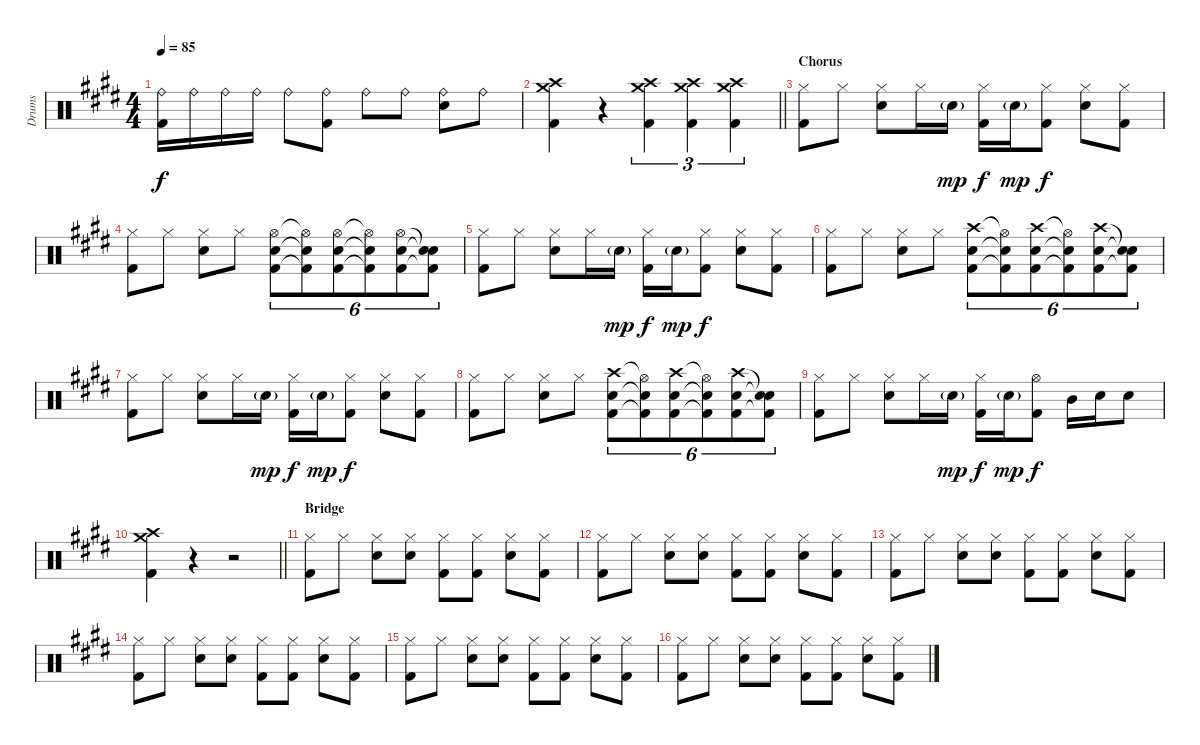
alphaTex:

\track ("Drums" "Drums") {instrument percussion}
\staff {score}
\articulation defaults
\ts (4 4)
\tempo 85
\clef neutral
\ks e
("Ride (bell)" "Kick (hit) 2").16{dy f} "Ride (bell)".16 "Ride (bell)".16 "Ride (bell)".16 "Ride (bell)".8 ("Ride (bell)" "Kick (hit) 2").8 "Ride (bell)".8 "Ride (bell)".8 ("Ride (bell)" "Snare (hit) 2").8 "Ride (bell)".8 |
\barLineRight lightlight
("Crash high (hit)" "Crash medium (hit)" "Kick (hit) 2").4 r.4 ("Crash high (hit)" "Crash medium (hit)" "Kick (hit) 2").4{tu (3 2)} ("Crash high (hit)" "Crash medium (hit)" "Kick (hit) 2").4{tu (3 2)} ("Crash high (hit)" "Crash medium (hit)" "Kick (hit) 2").4{tu (3 2)} |
\section ("" "Chorus")
("Hi-Hat (closed)" "Kick (hit) 2").8 "Hi-Hat (closed)".8 ("Hi-Hat (closed)" "Snare (hit) 2").8 "Hi-Hat (closed)".16 "Snare (hit) 2"{g}.16{dy mp} ("Hi-Hat (closed)" "Kick (hit) 2").16{dy f} "Snare (hit) 2"{g}.16{dy mp} ("Hi-Hat (closed)" "Kick (hit) 2").8{dy f} ("Hi-Hat (closed)" "Snare (hit) 2").8 ("Hi-Hat (closed)" "Kick (hit) 2").8 |
("Hi-Hat (closed)" "Kick (hit) 2").8 "Hi-Hat (closed)".8 ("Hi-Hat (closed)" "Snare (hit) 2").8 "Hi-Hat (closed)".8 ("Hi-Hat (open)" "Snare (hit) 2" "Kick (hit) 2").8{tu (6 4)} ("Hi-Hat (open)"{t} "Snare (hit) 2"{t} "Kick (hit) 2"{t}).8{tu (6 4)} ("Hi-Hat (open)" "Snare (hit) 2" "Kick (hit) 2").8{tu (6 4)} ("Hi-Hat (open)"{t} "Snare (hit) 2"{t} "Kick (hit) 2"{t}).8{tu (6 4)} ("Hi-Hat (open)" "Snare (hit) 2" "Kick (hit) 2").8{tu (6 4)} ("Snare (hit)"{t} "Snare (hit)"{t} "Kick (hit) 2"{t}).8{tu (6 4)} |
("Hi-Hat (closed)" "Kick (hit) 2").8 "Hi-Hat (closed)".8 ("Hi-Hat (closed)" "Snare (hit) 2").8 "Hi-Hat (closed)".16 "Snare (hit) 2"{g}.16{dy mp} ("Hi-Hat (closed)" "Kick (hit) 2").16{dy f} "Snare (hit) 2"{g}.16{dy mp} ("Hi-Hat (closed)" "Kick (hit) 2").8{dy f} ("Hi-Hat (closed)" "Snare (hit) 2").8 ("Hi-Hat (closed)" "Kick (hit) 2").8 |
("Hi-Hat (closed)" "Kick (hit) 2").8 "Hi-Hat (closed)".8 ("Hi-Hat (closed)" "Snare (hit) 2").8 "Hi-Hat (closed)".8 ("Crash high (hit)" "Snare (hit) 2" "Kick (hit) 2").8{tu (6 4)} ("Hi-Hat (open)"{t} "Snare (hit) 2"{t} "Kick (hit) 2"{t}).8{tu (6 4)} ("Crash high (hit)" "Snare (hit) 2" "Kick (hit) 2").8{tu (6 4)} ("Hi-Hat (open)"{t} "Snare (hit) 2"{t} "Kick (hit) 2"{t}).8{tu (6 4)} ("Crash high (hit)" "Snare (hit) 2" "Kick (hit) 2").8{tu (6 4)} ("Snare (hit)"{t} "Snare (hit)"{t} "Kick (hit) 2"{t}).8{tu (6 4)} |
("Hi-Hat (closed)" "Kick (hit) 2").8 "Hi-Hat (closed)".8 ("Hi-Hat (closed)" "Snare (hit) 2").8 "Hi-Hat (closed)".16 "Snare (hit) 2"{g}.16{dy mp} ("Hi-Hat (closed)" "Kick (hit) 2").16{dy f} "Snare (hit) 2"{g}.16{dy mp} ("Hi-Hat (closed)" "Kick (hit) 2").8{dy f} ("Hi-Hat (closed)" "Snare (hit) 2").8 ("Hi-Hat (closed)" "Kick (hit) 2").8 |
("Hi-Hat (closed)" "Kick (hit) 2").8 "Hi-Hat (closed)".8 ("Hi-Hat (closed)" "Snare (hit) 2").8 "Hi-Hat (closed)".8 ("Crash high (hit)" "Snare (hit) 2" "Kick (hit) 2").8{tu (6 4)} ("Hi-Hat (open)"{t} "Snare (hit) 2"{t} "Kick (hit) 2"{t}).8{tu (6 4)} ("Crash high (hit)" "Snare (hit) 2" "Kick (hit) 2").8{tu (6 4)} ("Hi-Hat (open)"{t} "Snare (hit) 2"{t} "Kick (hit) 2"{t}).8{tu (6 4)} ("Crash high (hit)" "Snare (hit) 2" "Kick (hit) 2").8{tu (6 4)} ("Snare (hit)"{t} "Snare (hit)"{t} "Kick (hit) 2"{t}).8{tu (6 4)} |
("Hi-Hat (closed)" "Kick (hit) 2").8 "Hi-Hat (closed)".8 ("Hi-Hat (closed)" "Snare (hit) 2").8 "Hi-Hat (closed)".16 "Snare (hit) 2"{g}.16{dy mp} ("Hi-Hat (closed)" "Kick (hit) 2").16{dy f} "Snare (hit) 2"{g}.16{dy mp} ("Hi-Hat (open)" "Kick (hit) 2").8{dy f} "Mid Tom (hit)".16 "Snare (hit) 2".16 "Snare (hit) 2".8 |
\barLineRight lightlight
("Crash high (hit)" "Crash medium (hit)" "Kick (hit) 2").4 r.4 r.2 |
\section ("" "Bridge")
("Hi-Hat (closed)" "Kick (hit) 2").8 "Hi-Hat (closed)".8 ("Hi-Hat (closed)" "Snare (hit) 2").8 ("Hi-Hat (closed)" "Snare (hit) 2").8 ("Hi-Hat (closed)" "Kick (hit) 2").8 ("Hi-Hat (closed)" "Kick (hit) 2").8 ("Hi-Hat (closed)" "Snare (hit) 2").8 ("Hi-Hat (closed)" "Kick (hit) 2").8 |
("Hi-Hat (closed)" "Kick (hit) 2").8 "Hi-Hat (closed)".8 ("Hi-Hat (closed)" "Snare (hit) 2").8 ("Hi-Hat (closed)" "Snare (hit) 2").8 ("Hi-Hat (closed)" "Kick (hit) 2").8 ("Hi-Hat (closed)" "Kick (hit) 2").8 ("Hi-Hat (closed)" "Snare (hit) 2").8 ("Hi-Hat (closed)" "Kick (hit) 2").8 |
("Hi-Hat (closed)" "Kick (hit) 2").8 "Hi-Hat (closed)".8 ("Hi-Hat (closed)" "Snare (hit) 2").8 ("Hi-Hat (closed)" "Snare (hit) 2").8 ("Hi-Hat (closed)" "Kick (hit) 2").8 ("Hi-Hat (closed)" "Kick (hit) 2").8 ("Hi-Hat (closed)" "Snare (hit) 2").8 ("Hi-Hat (closed)" "Kick (hit) 2").8 |
("Hi-Hat (closed)" "Kick (hit) 2").8 "Hi-Hat (closed)".8 ("Hi-Hat (closed)" "Snare (hit) 2").8 ("Hi-Hat (closed)" "Snare (hit) 2").8 ("Hi-Hat (closed)" "Kick (hit) 2").8 ("Hi-Hat (closed)" "Kick (hit) 2").8 ("Hi-Hat (closed)" "Snare (hit) 2").8 ("Hi-Hat (closed)" "Kick (hit) 2").8 |
("Hi-Hat (closed)" "Kick (hit) 2").8 "Hi-Hat (closed)".8 ("Hi-Hat (closed)" "Snare (hit) 2").8 ("Hi-Hat (closed)" "Snare (hit) 2").8 ("Hi-Hat (closed)" "Kick (hit) 2").8 ("Hi-Hat (closed)" "Kick (hit) 2").8 ("Hi-Hat (closed)" "Snare (hit) 2").8 ("Hi-Hat (closed)" "Kick (hit) 2").8 |
("Hi-Hat (closed)" "Kick (hit) 2").8 "Hi-Hat (closed)".8 ("Hi-Hat (closed)" "Snare (hit) 2").8 ("Hi-Hat (closed)" "Snare (hit) 2").8 ("Hi-Hat (closed)" "Kick (hit) 2").8 ("Hi-Hat (closed)" "Kick (hit) 2").8 ("Hi-Hat (closed)" "Snare (hit) 2").8 ("Hi-Hat (closed)" "Kick (hit) 2").8
